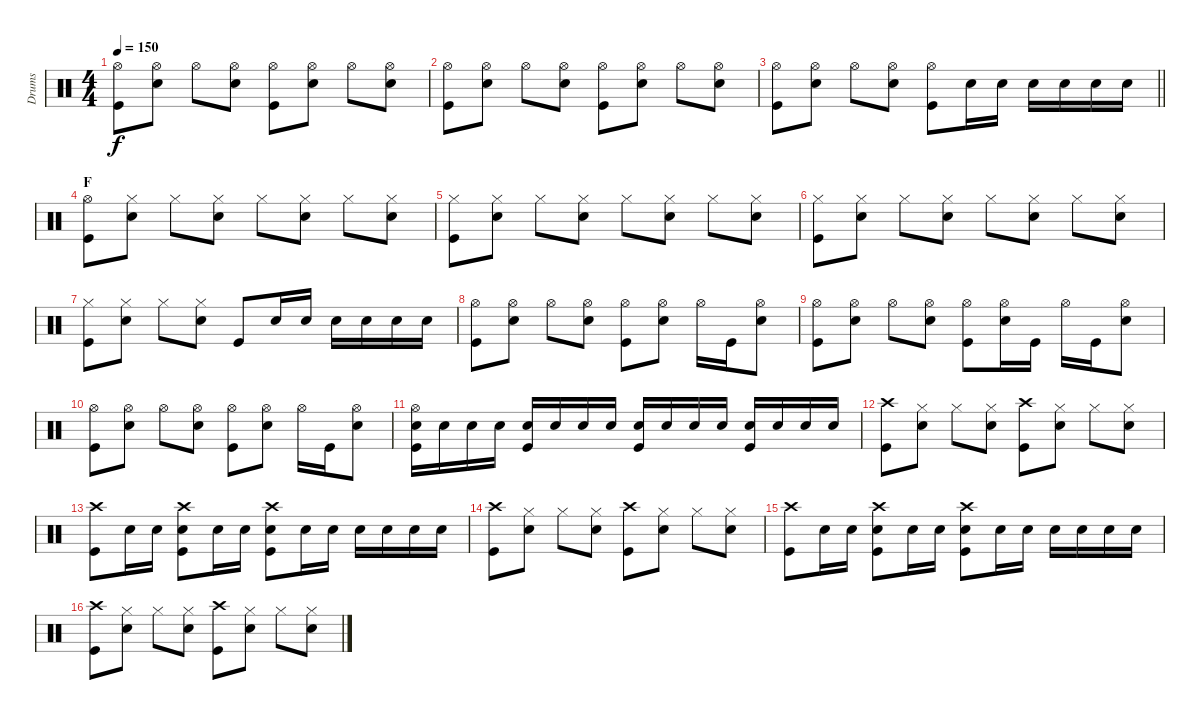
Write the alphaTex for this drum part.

\track ("Drums" "Drums") {instrument percussion}
\staff {score}
\articulation defaults
\ts (4 4)
\tempo 150
\clef neutral
\ks c
("Hi-Hat (open)" "Kick (hit)").8{dy f} ("Hi-Hat (open)" "Snare (hit) 2").8 "Hi-Hat (open)".8 ("Hi-Hat (open)" "Snare (hit) 2").8 ("Hi-Hat (open)" "Kick (hit)").8 ("Hi-Hat (open)" "Snare (hit) 2").8 "Hi-Hat (open)".8 ("Hi-Hat (open)" "Snare (hit) 2").8 |
("Hi-Hat (open)" "Kick (hit)").8 ("Hi-Hat (open)" "Snare (hit) 2").8 "Hi-Hat (open)".8 ("Hi-Hat (open)" "Snare (hit) 2").8 ("Hi-Hat (open)" "Kick (hit)").8 ("Hi-Hat (open)" "Snare (hit) 2").8 "Hi-Hat (open)".8 ("Hi-Hat (open)" "Snare (hit) 2").8 |
\barLineRight lightlight
("Hi-Hat (open)" "Kick (hit)").8 ("Hi-Hat (open)" "Snare (hit) 2").8 "Hi-Hat (open)".8 ("Hi-Hat (open)" "Snare (hit) 2").8 ("Hi-Hat (open)" "Kick (hit)").8 "Snare (hit) 2".16 "Snare (hit) 2".16 "Snare (hit) 2".16 "Snare (hit) 2".16 "Snare (hit) 2".16 "Snare (hit) 2".16 |
\section ("" "F")
("Hi-Hat (open)" "Kick (hit)").8 ("Hi-Hat (closed)" "Snare (hit) 2").8 "Hi-Hat (closed)".8 ("Hi-Hat (closed)" "Snare (hit) 2").8 "Hi-Hat (closed)".8 ("Hi-Hat (closed)" "Snare (hit) 2").8 "Hi-Hat (closed)".8 ("Hi-Hat (closed)" "Snare (hit) 2").8 |
("Hi-Hat (closed)" "Kick (hit)").8 ("Hi-Hat (closed)" "Snare (hit) 2").8 "Hi-Hat (closed)".8 ("Hi-Hat (closed)" "Snare (hit) 2").8 "Hi-Hat (closed)".8 ("Hi-Hat (closed)" "Snare (hit) 2").8 "Hi-Hat (closed)".8 ("Hi-Hat (closed)" "Snare (hit) 2").8 |
("Hi-Hat (closed)" "Kick (hit)").8 ("Hi-Hat (closed)" "Snare (hit) 2").8 "Hi-Hat (closed)".8 ("Hi-Hat (closed)" "Snare (hit) 2").8 "Hi-Hat (closed)".8 ("Hi-Hat (closed)" "Snare (hit) 2").8 "Hi-Hat (closed)".8 ("Hi-Hat (closed)" "Snare (hit) 2").8 |
("Hi-Hat (closed)" "Kick (hit)").8 ("Hi-Hat (closed)" "Snare (hit) 2").8 "Hi-Hat (closed)".8 ("Hi-Hat (closed)" "Snare (hit) 2").8 "Kick (hit)".8 "Snare (hit) 2".16 "Snare (hit) 2".16 "Snare (hit) 2".16 "Snare (hit) 2".16 "Snare (hit) 2".16 "Snare (hit) 2".16 |
("Hi-Hat (open)" "Kick (hit)").8 ("Hi-Hat (open)" "Snare (hit) 2").8 "Hi-Hat (open)".8 ("Hi-Hat (open)" "Snare (hit) 2").8 ("Hi-Hat (open)" "Kick (hit)").8 ("Hi-Hat (open)" "Snare (hit) 2").8 "Hi-Hat (open)".16 "Kick (hit)".16 ("Hi-Hat (open)" "Snare (hit) 2").8 |
("Hi-Hat (open)" "Kick (hit)").8 ("Hi-Hat (open)" "Snare (hit) 2").8 "Hi-Hat (open)".8 ("Hi-Hat (open)" "Snare (hit) 2").8 ("Hi-Hat (open)" "Kick (hit)").8 ("Hi-Hat (open)" "Snare (hit) 2").16 "Kick (hit)".16 "Hi-Hat (open)".16 "Kick (hit)".16 ("Hi-Hat (open)" "Snare (hit) 2").8 |
("Hi-Hat (open)" "Kick (hit)").8 ("Hi-Hat (open)" "Snare (hit) 2").8 "Hi-Hat (open)".8 ("Hi-Hat (open)" "Snare (hit) 2").8 ("Hi-Hat (open)" "Kick (hit)").8 ("Hi-Hat (open)" "Snare (hit) 2").8 "Hi-Hat (open)".16 "Kick (hit)".16 ("Hi-Hat (open)" "Snare (hit) 2").8 |
("Hi-Hat (open)" "Snare (hit) 2" "Kick (hit)").16 "Snare (hit) 2".16 "Snare (hit) 2".16 "Snare (hit) 2".16 ("Snare (hit) 2" "Kick (hit)").16 "Snare (hit) 2".16 "Snare (hit) 2".16 "Snare (hit) 2".16 ("Snare (hit) 2" "Kick (hit)").16 "Snare (hit) 2".16 "Snare (hit) 2".16 "Snare (hit) 2".16 ("Snare (hit) 2" "Kick (hit)").16 "Snare (hit) 2".16 "Snare (hit) 2".16 "Snare (hit) 2".16 |
("Crash high (hit)" "Kick (hit)").8 ("Hi-Hat (closed)" "Snare (hit) 2").8 "Hi-Hat (closed)".8 ("Hi-Hat (closed)" "Snare (hit) 2").8 ("Crash high (hit)" "Kick (hit)").8 ("Hi-Hat (closed)" "Snare (hit) 2").8 "Hi-Hat (closed)".8 ("Hi-Hat (closed)" "Snare (hit) 2").8 |
("Crash high (hit)" "Kick (hit)").8 "Snare (hit) 2".16 "Snare (hit) 2".16 ("Crash high (hit)" "Snare (hit) 2" "Kick (hit)").8 "Snare (hit) 2".16 "Snare (hit) 2".16 ("Crash high (hit)" "Snare (hit) 2" "Kick (hit)").8 "Snare (hit) 2".16 "Snare (hit) 2".16 "Snare (hit) 2".16 "Snare (hit) 2".16 "Snare (hit) 2".16 "Snare (hit) 2".16 |
("Crash high (hit)" "Kick (hit)").8 ("Hi-Hat (closed)" "Snare (hit) 2").8 "Hi-Hat (closed)".8 ("Hi-Hat (closed)" "Snare (hit) 2").8 ("Crash high (hit)" "Kick (hit)").8 ("Hi-Hat (closed)" "Snare (hit) 2").8 "Hi-Hat (closed)".8 ("Hi-Hat (closed)" "Snare (hit) 2").8 |
("Crash high (hit)" "Kick (hit)").8 "Snare (hit) 2".16 "Snare (hit) 2".16 ("Crash high (hit)" "Snare (hit) 2" "Kick (hit)").8 "Snare (hit) 2".16 "Snare (hit) 2".16 ("Crash high (hit)" "Snare (hit) 2" "Kick (hit)").8 "Snare (hit) 2".16 "Snare (hit) 2".16 "Snare (hit) 2".16 "Snare (hit) 2".16 "Snare (hit) 2".16 "Snare (hit) 2".16 |
("Crash high (hit)" "Kick (hit)").8 ("Hi-Hat (closed)" "Snare (hit) 2").8 "Hi-Hat (closed)".8 ("Hi-Hat (closed)" "Snare (hit) 2").8 ("Crash high (hit)" "Kick (hit)").8 ("Hi-Hat (closed)" "Snare (hit) 2").8 "Hi-Hat (closed)".8 ("Hi-Hat (closed)" "Snare (hit) 2").8
